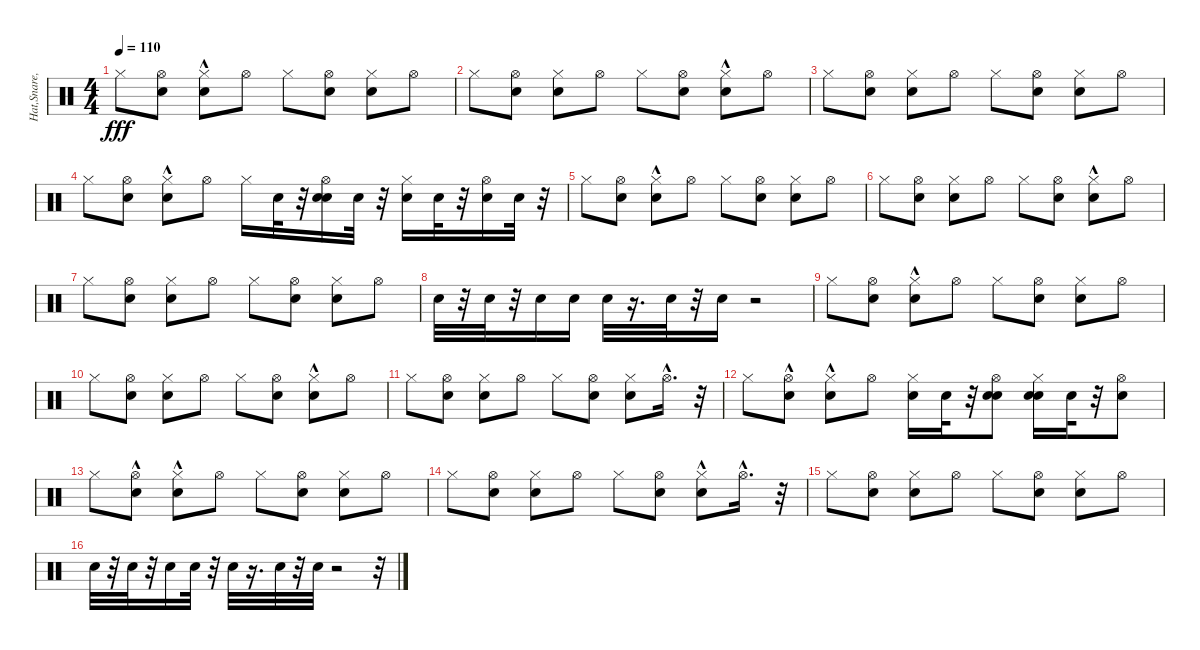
\track ("Hat,Snare,Clap" "Hat,Snare,") {instrument percussion}
\staff {score}
\articulation defaults
\ts (4 4)
\tempo 110
\clef neutral
\ks c "Hi-Hat (closed)".8{dy fff}
("Hi-Hat (open)" "Electric Snare (hit)").8 ("Hi-Hat (closed)" "Hand Clap (hit)"{hac}).8 "Hi-Hat (open)".8 "Hi-Hat (closed)".8 ("Hi-Hat (open)" "Electric Snare (hit)").8 ("Hi-Hat (closed)" "Hand Clap (hit)").8 "Hi-Hat (open)".8 |
"Hi-Hat (closed)".8 ("Hi-Hat (open)" "Electric Snare (hit)").8 ("Hi-Hat (closed)" "Hand Clap (hit)").8 "Hi-Hat (open)".8 "Hi-Hat (closed)".8 ("Hi-Hat (open)" "Electric Snare (hit)").8 ("Hi-Hat (closed)" "Hand Clap (hit)"{hac}).8 "Hi-Hat (open)".8 |
"Hi-Hat (closed)".8 ("Hi-Hat (open)" "Electric Snare (hit)").8 ("Hi-Hat (closed)" "Hand Clap (hit)").8 "Hi-Hat (open)".8 "Hi-Hat (closed)".8 ("Hi-Hat (open)" "Electric Snare (hit)").8 ("Hi-Hat (closed)" "Hand Clap (hit)").8 "Hi-Hat (open)".8 |
"Hi-Hat (closed)".8 ("Hi-Hat (open)" "Electric Snare (hit)").8 ("Hi-Hat (closed)" "Hand Clap (hit)"{hac}).8 "Hi-Hat (open)".8 "Hi-Hat (closed)".16 "Electric Snare (hit)".32 r.32 ("Hi-Hat (open)" "Electric Snare (hit)" "Electric Snare (hit)").16 "Electric Snare (hit)".32 r.32 ("Hi-Hat (closed)" "Hand Clap (hit)").16 "Electric Snare (hit)".32 r.32 ("Hi-Hat (open)" "Electric Snare (hit)").16 "Electric Snare (hit)".32 r.32 |
"Hi-Hat (closed)".8 ("Hi-Hat (open)" "Electric Snare (hit)").8 ("Hi-Hat (closed)" "Hand Clap (hit)"{hac}).8 "Hi-Hat (open)".8 "Hi-Hat (closed)".8 ("Hi-Hat (open)" "Electric Snare (hit)").8 ("Hi-Hat (closed)" "Hand Clap (hit)").8 "Hi-Hat (open)".8 |
"Hi-Hat (closed)".8 ("Hi-Hat (open)" "Electric Snare (hit)").8 ("Hi-Hat (closed)" "Hand Clap (hit)").8 "Hi-Hat (open)".8 "Hi-Hat (closed)".8 ("Hi-Hat (open)" "Electric Snare (hit)").8 ("Hi-Hat (closed)" "Hand Clap (hit)"{hac}).8 "Hi-Hat (open)".8 |
"Hi-Hat (closed)".8 ("Hi-Hat (open)" "Electric Snare (hit)").8 ("Hi-Hat (closed)" "Hand Clap (hit)").8 "Hi-Hat (open)".8 "Hi-Hat (closed)".8 ("Hi-Hat (open)" "Electric Snare (hit)").8 ("Hi-Hat (closed)" "Hand Clap (hit)").8 "Hi-Hat (open)".8 |
"Electric Snare (hit)".32 r.32 "Electric Snare (hit)".32 r.32 "Electric Snare (hit)".16 "Electric Snare (hit)".16 "Electric Snare (hit)".32 r.16{d} "Electric Snare (hit)".32 r.32 "Electric Snare (hit)".16 r.2 |
"Hi-Hat (closed)".8 ("Hi-Hat (open)" "Electric Snare (hit)").8 ("Hi-Hat (closed)" "Hand Clap (hit)"{hac}).8 "Hi-Hat (open)".8 "Hi-Hat (closed)".8 ("Hi-Hat (open)" "Electric Snare (hit)").8 ("Hi-Hat (closed)" "Hand Clap (hit)").8 "Hi-Hat (open)".8 |
"Hi-Hat (closed)".8 ("Hi-Hat (open)" "Electric Snare (hit)").8 ("Hi-Hat (closed)" "Hand Clap (hit)").8 "Hi-Hat (open)".8 "Hi-Hat (closed)".8 ("Hi-Hat (open)" "Electric Snare (hit)").8 ("Hi-Hat (closed)" "Hand Clap (hit)"{hac}).8 "Hi-Hat (open)".8 |
"Hi-Hat (closed)".8 ("Hi-Hat (open)" "Electric Snare (hit)").8 ("Hi-Hat (closed)" "Hand Clap (hit)").8 "Hi-Hat (open)".8 "Hi-Hat (closed)".8 ("Hi-Hat (open)" "Electric Snare (hit)").8 ("Hi-Hat (closed)" "Hand Clap (hit)").8 "Hi-Hat (open)"{hac}.16{d} r.32 |
"Hi-Hat (closed)".8 ("Hi-Hat (open)" "Electric Snare (hit)"{hac}).8 ("Hi-Hat (closed)" "Hand Clap (hit)"{hac}).8 "Hi-Hat (open)".8 ("Hi-Hat (closed)" "Electric Snare (hit)").16 "Electric Snare (hit)".32 r.32 ("Hi-Hat (open)" "Electric Snare (hit)" "Electric Snare (hit)").8 ("Hi-Hat (closed)" "Electric Snare (hit)" "Hand Clap (hit)").16 "Electric Snare (hit)".32 r.32 ("Hi-Hat (open)" "Electric Snare (hit)").8 |
"Hi-Hat (closed)".8 ("Hi-Hat (open)" "Electric Snare (hit)"{hac}).8 ("Hi-Hat (closed)" "Hand Clap (hit)"{hac}).8 "Hi-Hat (open)".8 "Hi-Hat (closed)".8 ("Hi-Hat (open)" "Electric Snare (hit)").8 ("Hi-Hat (closed)" "Hand Clap (hit)").8 "Hi-Hat (open)".8 |
"Hi-Hat (closed)".8 ("Hi-Hat (open)" "Electric Snare (hit)").8 ("Hi-Hat (closed)" "Hand Clap (hit)").8 "Hi-Hat (open)".8 "Hi-Hat (closed)".8 ("Hi-Hat (open)" "Electric Snare (hit)").8 ("Hi-Hat (closed)" "Hand Clap (hit)"{hac}).8 "Hi-Hat (open)"{hac}.16{d} r.32 |
"Hi-Hat (closed)".8 ("Hi-Hat (open)" "Electric Snare (hit)").8 ("Hi-Hat (closed)" "Hand Clap (hit)").8 "Hi-Hat (open)".8 "Hi-Hat (closed)".8 ("Hi-Hat (open)" "Electric Snare (hit)").8 ("Hi-Hat (closed)" "Hand Clap (hit)").8 "Hi-Hat (open)".8 |
"Electric Snare (hit)".32 r.32 "Electric Snare (hit)".32 r.32 "Electric Snare (hit)".16 "Electric Snare (hit)".32 r.32 "Electric Snare (hit)".32 r.16{d} "Electric Snare (hit)".32 r.32 "Electric Snare (hit)".32 r.2 r.32
